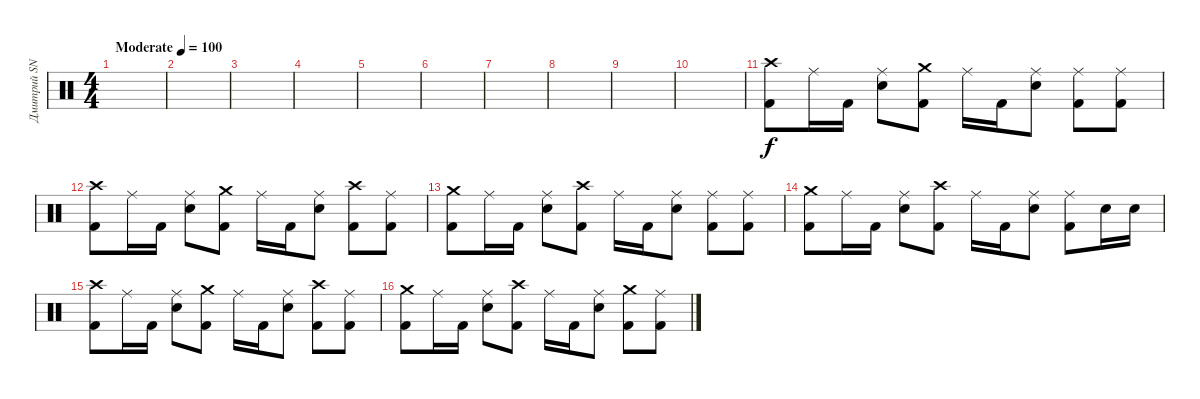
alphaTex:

\track ("Дмитрий SNAKE Хакимов" "Дмитрий SN") {instrument percussion}
\staff {score}
\articulation defaults
\ts (4 4)
\tempo (100 "Moderate")
\clef neutral
\ks c
|
|
|
|
|
|
|
|
|
|
("Crash high (hit)" "Kick (hit) 2").8 "Ride (middle)".16 "Kick (hit) 2".16 ("Ride (middle)" "Snare (hit) 2").8 ("Crash medium (hit)" "Kick (hit) 2").8 "Ride (middle)".16 "Kick (hit) 2".16 ("Ride (middle)" "Snare (hit) 2").8 ("Ride (middle)" "Kick (hit) 2").8 ("Ride (middle)" "Kick (hit) 2").8 |
("Crash high (hit)" "Kick (hit) 2").8 "Ride (middle)".16 "Kick (hit) 2".16 ("Ride (middle)" "Snare (hit) 2").8 ("Crash medium (hit)" "Kick (hit) 2").8 "Ride (middle)".16 "Kick (hit) 2".16 ("Ride (middle)" "Snare (hit) 2").8 ("Crash high (hit)" "Kick (hit) 2").8 ("Ride (middle)" "Kick (hit) 2").8 |
("Crash medium (hit)" "Kick (hit) 2").8 "Ride (middle)".16 "Kick (hit) 2".16 ("Ride (middle)" "Snare (hit) 2").8 ("Crash high (hit)" "Kick (hit) 2").8 "Ride (middle)".16 "Kick (hit) 2".16 ("Ride (middle)" "Snare (hit) 2").8 ("Ride (middle)" "Kick (hit) 2").8 ("Ride (middle)" "Kick (hit) 2").8 |
("Crash medium (hit)" "Kick (hit) 2").8 "Ride (middle)".16 "Kick (hit) 2".16 ("Ride (middle)" "Snare (hit) 2").8 ("Crash high (hit)" "Kick (hit) 2").8 "Ride (middle)".16 "Kick (hit) 2".16 ("Ride (middle)" "Snare (hit) 2").8 ("Ride (middle)" "Kick (hit) 2").8 "Snare (hit) 2".16 "Snare (hit) 2".16 |
("Crash high (hit)" "Kick (hit) 2").8 "Ride (middle)".16 "Kick (hit) 2".16 ("Ride (middle)" "Snare (hit) 2").8 ("Crash medium (hit)" "Kick (hit) 2").8 "Ride (middle)".16 "Kick (hit) 2".16 ("Ride (middle)" "Snare (hit) 2").8 ("Crash high (hit)" "Kick (hit) 2").8 ("Ride (middle)" "Kick (hit) 2").8 |
("Crash medium (hit)" "Kick (hit) 2").8 "Ride (middle)".16 "Kick (hit) 2".16 ("Ride (middle)" "Snare (hit) 2").8 ("Crash high (hit)" "Kick (hit) 2").8 "Ride (middle)".16 "Kick (hit) 2".16 ("Ride (middle)" "Snare (hit) 2").8 ("Crash medium (hit)" "Kick (hit) 2").8 ("Ride (middle)" "Kick (hit) 2").8
